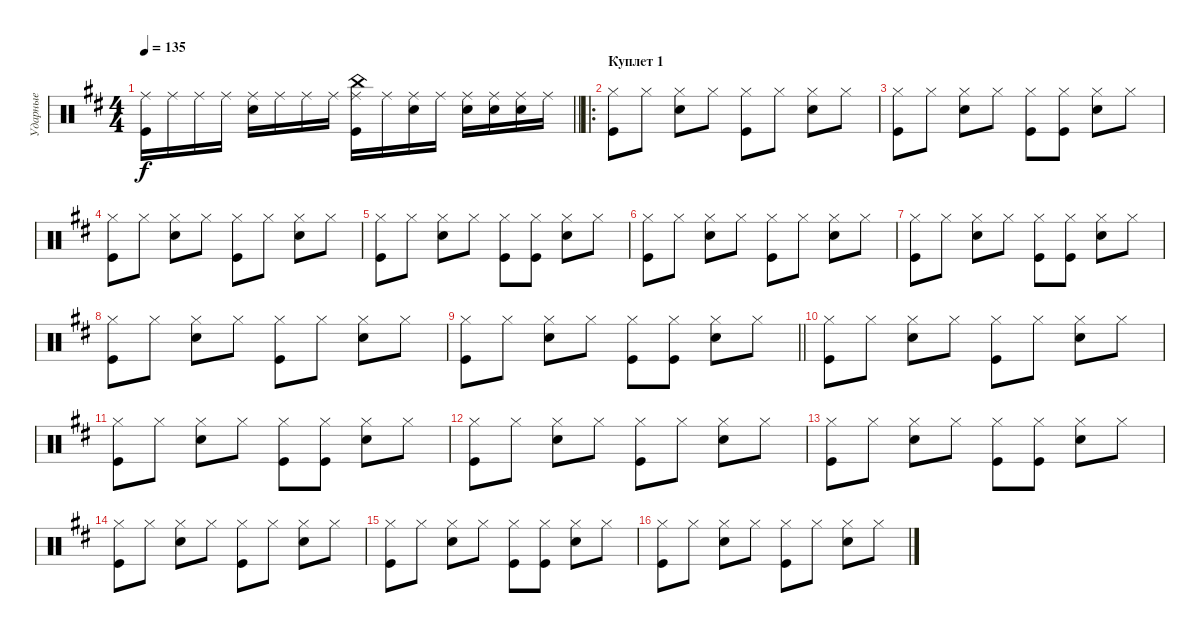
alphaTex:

\track ("Ударные" "Ударные") {solo instrument percussion}
\staff {score}
\articulation defaults
\ts (4 4)
\tempo 135
\clef neutral
\barLineRight lightlight
\ks bminor
("Kick (hit)" "Ride (middle)").16{dy f} "Ride (middle)".16 "Ride (middle)".16 "Ride (middle)".16 ("Ride (middle)" "Snare (hit) 2").16 "Ride (middle)".16 "Ride (middle)".16 "Ride (middle)".16 ("Ride (middle)" "China (hit)" "Kick (hit)").16 "Ride (middle)".16 ("Ride (middle)" "Snare (hit) 2").16 "Ride (middle)".16 ("Ride (middle)" "Snare (hit) 2").16 ("Ride (middle)" "Snare (hit) 2").16 ("Ride (middle)" "Snare (hit) 2").16 "Ride (middle)".16 |
\ro
\section ("" "Куплет 1")
("Kick (hit)" "Hi-Hat (closed)").8 "Hi-Hat (closed)".8 ("Hi-Hat (closed)" "Snare (hit) 2").8 "Hi-Hat (closed)".8 ("Kick (hit)" "Hi-Hat (closed)").8 "Hi-Hat (closed)".8 ("Hi-Hat (closed)" "Snare (hit) 2").8 "Hi-Hat (closed)".8 |
("Kick (hit)" "Hi-Hat (closed)").8 "Hi-Hat (closed)".8 ("Hi-Hat (closed)" "Snare (hit) 2").8 "Hi-Hat (closed)".8 ("Kick (hit)" "Hi-Hat (closed)").8 ("Kick (hit)" "Hi-Hat (closed)").8 ("Hi-Hat (closed)" "Snare (hit) 2").8 "Hi-Hat (closed)".8 |
("Kick (hit)" "Hi-Hat (closed)").8 "Hi-Hat (closed)".8 ("Hi-Hat (closed)" "Snare (hit) 2").8 "Hi-Hat (closed)".8 ("Kick (hit)" "Hi-Hat (closed)").8 "Hi-Hat (closed)".8 ("Hi-Hat (closed)" "Snare (hit) 2").8 "Hi-Hat (closed)".8 |
("Kick (hit)" "Hi-Hat (closed)").8 "Hi-Hat (closed)".8 ("Hi-Hat (closed)" "Snare (hit) 2").8 "Hi-Hat (closed)".8 ("Kick (hit)" "Hi-Hat (closed)").8 ("Kick (hit)" "Hi-Hat (closed)").8 ("Hi-Hat (closed)" "Snare (hit) 2").8 "Hi-Hat (closed)".8 |
("Kick (hit)" "Hi-Hat (closed)").8 "Hi-Hat (closed)".8 ("Hi-Hat (closed)" "Snare (hit) 2").8 "Hi-Hat (closed)".8 ("Kick (hit)" "Hi-Hat (closed)").8 "Hi-Hat (closed)".8 ("Hi-Hat (closed)" "Snare (hit) 2").8 "Hi-Hat (closed)".8 |
("Kick (hit)" "Hi-Hat (closed)").8 "Hi-Hat (closed)".8 ("Hi-Hat (closed)" "Snare (hit) 2").8 "Hi-Hat (closed)".8 ("Kick (hit)" "Hi-Hat (closed)").8 ("Kick (hit)" "Hi-Hat (closed)").8 ("Hi-Hat (closed)" "Snare (hit) 2").8 "Hi-Hat (closed)".8 |
("Kick (hit)" "Hi-Hat (closed)").8 "Hi-Hat (closed)".8 ("Hi-Hat (closed)" "Snare (hit) 2").8 "Hi-Hat (closed)".8 ("Kick (hit)" "Hi-Hat (closed)").8 "Hi-Hat (closed)".8 ("Hi-Hat (closed)" "Snare (hit) 2").8 "Hi-Hat (closed)".8 |
\barLineRight lightlight
("Kick (hit)" "Hi-Hat (closed)").8 "Hi-Hat (closed)".8 ("Hi-Hat (closed)" "Snare (hit) 2").8 "Hi-Hat (closed)".8 ("Kick (hit)" "Hi-Hat (closed)").8 ("Kick (hit)" "Hi-Hat (closed)").8 ("Hi-Hat (closed)" "Snare (hit) 2").8 "Hi-Hat (closed)".8 |
("Kick (hit)" "Hi-Hat (closed)").8 "Hi-Hat (closed)".8 ("Hi-Hat (closed)" "Snare (hit) 2").8 "Hi-Hat (closed)".8 ("Kick (hit)" "Hi-Hat (closed)").8 "Hi-Hat (closed)".8 ("Hi-Hat (closed)" "Snare (hit) 2").8 "Hi-Hat (closed)".8 |
("Kick (hit)" "Hi-Hat (closed)").8 "Hi-Hat (closed)".8 ("Hi-Hat (closed)" "Snare (hit) 2").8 "Hi-Hat (closed)".8 ("Kick (hit)" "Hi-Hat (closed)").8 ("Kick (hit)" "Hi-Hat (closed)").8 ("Hi-Hat (closed)" "Snare (hit) 2").8 "Hi-Hat (closed)".8 |
("Kick (hit)" "Hi-Hat (closed)").8 "Hi-Hat (closed)".8 ("Hi-Hat (closed)" "Snare (hit) 2").8 "Hi-Hat (closed)".8 ("Kick (hit)" "Hi-Hat (closed)").8 "Hi-Hat (closed)".8 ("Hi-Hat (closed)" "Snare (hit) 2").8 "Hi-Hat (closed)".8 |
("Kick (hit)" "Hi-Hat (closed)").8 "Hi-Hat (closed)".8 ("Hi-Hat (closed)" "Snare (hit) 2").8 "Hi-Hat (closed)".8 ("Kick (hit)" "Hi-Hat (closed)").8 ("Kick (hit)" "Hi-Hat (closed)").8 ("Hi-Hat (closed)" "Snare (hit) 2").8 "Hi-Hat (closed)".8 |
("Kick (hit)" "Hi-Hat (closed)").8 "Hi-Hat (closed)".8 ("Hi-Hat (closed)" "Snare (hit) 2").8 "Hi-Hat (closed)".8 ("Kick (hit)" "Hi-Hat (closed)").8 "Hi-Hat (closed)".8 ("Hi-Hat (closed)" "Snare (hit) 2").8 "Hi-Hat (closed)".8 |
("Kick (hit)" "Hi-Hat (closed)").8 "Hi-Hat (closed)".8 ("Hi-Hat (closed)" "Snare (hit) 2").8 "Hi-Hat (closed)".8 ("Kick (hit)" "Hi-Hat (closed)").8 ("Kick (hit)" "Hi-Hat (closed)").8 ("Hi-Hat (closed)" "Snare (hit) 2").8 "Hi-Hat (closed)".8 |
("Kick (hit)" "Hi-Hat (closed)").8 "Hi-Hat (closed)".8 ("Hi-Hat (closed)" "Snare (hit) 2").8 "Hi-Hat (closed)".8 ("Kick (hit)" "Hi-Hat (closed)").8 "Hi-Hat (closed)".8 ("Hi-Hat (closed)" "Snare (hit) 2").8 "Hi-Hat (closed)".8
